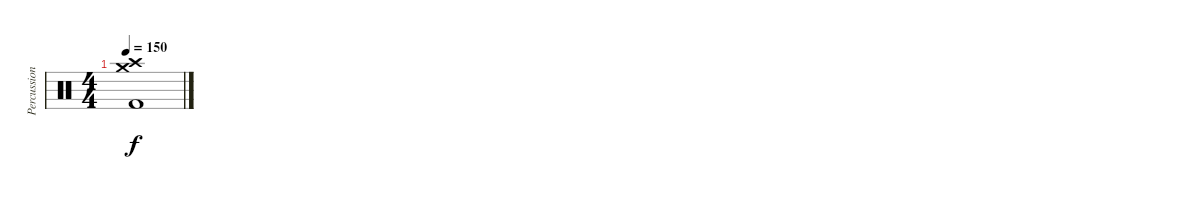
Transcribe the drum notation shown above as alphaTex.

\track ("Percussion" "Percussion") {instrument percussion}
\staff {score}
\articulation defaults
\ts (4 4)
\tempo 150
\clef neutral
\ks c
("Crash medium (hit)" "Crash high (hit)" "Kick (hit) 2").1{dy f}
